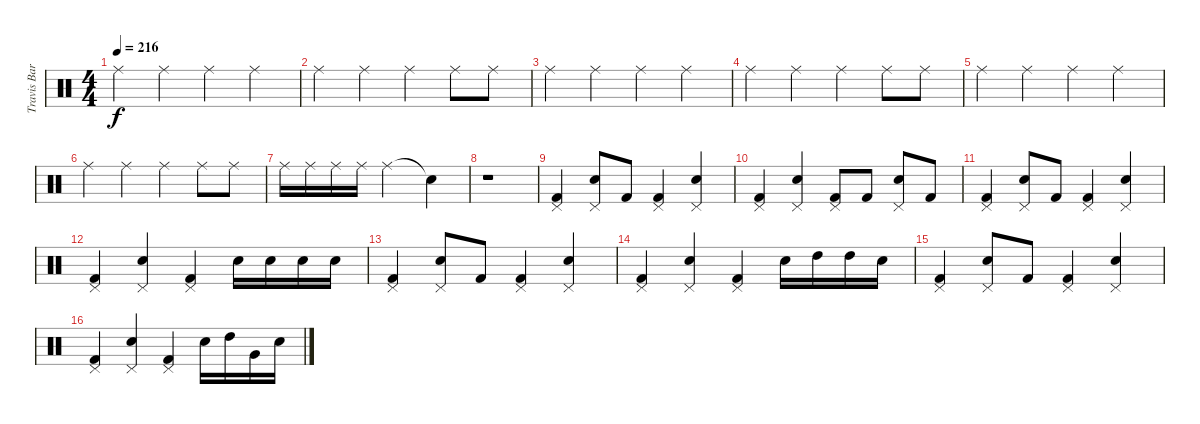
\track ("Travis Barker (Drums)" "Travis Bar") {instrument percussion}
\staff {score}
\articulation defaults
\ts (4 4)
\tempo 216
\clef neutral
\ks c "Ride (middle)".4{dy f} "Ride (middle)".4 "Ride (middle)".4 "Ride (middle)".4
|
"Ride (middle)".4 "Ride (middle)".4 "Ride (middle)".4 "Ride (middle)".8 "Ride (middle)".8 |
"Ride (middle)".4 "Ride (middle)".4 "Ride (middle)".4 "Ride (middle)".4 |
"Ride (middle)".4 "Ride (middle)".4 "Ride (middle)".4 "Ride (middle)".8 "Ride (middle)".8 |
"Ride (middle)".4 "Ride (middle)".4 "Ride (middle)".4 "Ride (middle)".4 |
"Ride (middle)".4 "Ride (middle)".4 "Ride (middle)".4 "Ride (middle)".8 "Ride (middle)".8 |
"Ride (middle)".16 "Ride (middle)".16 "Ride (middle)".16 "Ride (middle)".16 "Ride (middle)".2 "Snare (hit)"{t}.4 |
r.1 |
("Pedal Hi-Hat (hit)" "Kick (hit) 2").4 ("Pedal Hi-Hat (hit)" "Electric Snare (hit)").8 "Kick (hit) 2".8 ("Pedal Hi-Hat (hit)" "Kick (hit) 2").4 ("Pedal Hi-Hat (hit)" "Electric Snare (hit)").4 |
("Pedal Hi-Hat (hit)" "Kick (hit) 2").4 ("Pedal Hi-Hat (hit)" "Electric Snare (hit)").4 ("Pedal Hi-Hat (hit)" "Kick (hit) 2").8 "Kick (hit) 2".8 ("Pedal Hi-Hat (hit)" "Electric Snare (hit)").8 "Kick (hit) 2".8 |
("Pedal Hi-Hat (hit)" "Kick (hit) 2").4 ("Pedal Hi-Hat (hit)" "Electric Snare (hit)").8 "Kick (hit) 2".8 ("Pedal Hi-Hat (hit)" "Kick (hit) 2").4 ("Pedal Hi-Hat (hit)" "Electric Snare (hit)").4 |
("Pedal Hi-Hat (hit)" "Kick (hit) 2").4 ("Pedal Hi-Hat (hit)" "Electric Snare (hit)").4 ("Pedal Hi-Hat (hit)" "Kick (hit) 2").4 "Electric Snare (hit)".16 "Electric Snare (hit)".16 "Electric Snare (hit)".16 "Electric Snare (hit)".16 |
("Pedal Hi-Hat (hit)" "Kick (hit) 2").4 ("Pedal Hi-Hat (hit)" "Electric Snare (hit)").8 "Kick (hit) 2".8 ("Pedal Hi-Hat (hit)" "Kick (hit) 2").4 ("Pedal Hi-Hat (hit)" "Electric Snare (hit)").4 |
("Pedal Hi-Hat (hit)" "Kick (hit) 2").4 ("Pedal Hi-Hat (hit)" "Electric Snare (hit)").4 ("Pedal Hi-Hat (hit)" "Kick (hit) 2").4 "Electric Snare (hit)".16 "High Tom (hit)".16 "High Tom (hit)".16 "Electric Snare (hit)".16 |
("Pedal Hi-Hat (hit)" "Kick (hit) 2").4 ("Pedal Hi-Hat (hit)" "Electric Snare (hit)").8 "Kick (hit) 2".8 ("Pedal Hi-Hat (hit)" "Kick (hit) 2").4 ("Pedal Hi-Hat (hit)" "Electric Snare (hit)").4 |
("Pedal Hi-Hat (hit)" "Kick (hit) 2").4 ("Pedal Hi-Hat (hit)" "Electric Snare (hit)").4 ("Pedal Hi-Hat (hit)" "Kick (hit) 2").4 "Electric Snare (hit)".16 "High Tom (hit)".16 "Very Low Tom (hit)".16 "Electric Snare (hit)".16
